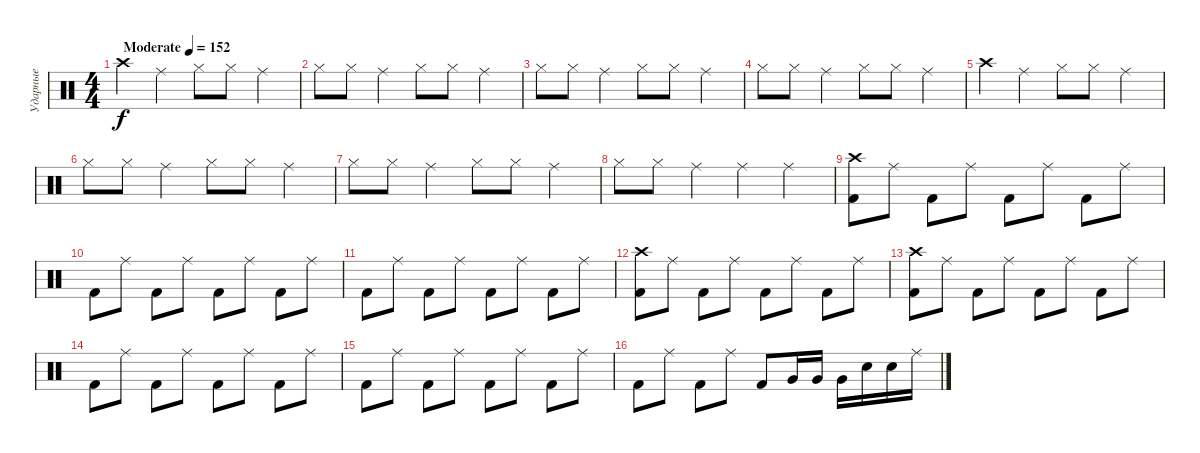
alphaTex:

\track ("Ударные" "Ударные") {instrument percussion}
\staff {score}
\articulation defaults
\ts (4 4)
\tempo (152 "Moderate")
\clef neutral
\ks c "Crash high (hit)".4{dy f} "Ride (middle)".4 "Hi-Hat (closed)".8 "Hi-Hat (closed)".8 "Ride (middle)".4
|
"Hi-Hat (closed)".8 "Hi-Hat (closed)".8 "Ride (middle)".4 "Hi-Hat (closed)".8 "Hi-Hat (closed)".8 "Ride (middle)".4 |
"Hi-Hat (closed)".8 "Hi-Hat (closed)".8 "Ride (middle)".4 "Hi-Hat (closed)".8 "Hi-Hat (closed)".8 "Ride (middle)".4 |
"Hi-Hat (closed)".8 "Hi-Hat (closed)".8 "Ride (middle)".4 "Hi-Hat (closed)".8 "Hi-Hat (closed)".8 "Ride (middle)".4 |
"Crash high (hit)".4 "Ride (middle)".4 "Hi-Hat (closed)".8 "Hi-Hat (closed)".8 "Ride (middle)".4 |
"Hi-Hat (closed)".8 "Hi-Hat (closed)".8 "Ride (middle)".4 "Hi-Hat (closed)".8 "Hi-Hat (closed)".8 "Ride (middle)".4 |
"Hi-Hat (closed)".8 "Hi-Hat (closed)".8 "Ride (middle)".4 "Hi-Hat (closed)".8 "Hi-Hat (closed)".8 "Ride (middle)".4 |
"Hi-Hat (closed)".8 "Hi-Hat (closed)".8 "Ride (middle)".4 "Ride (middle)".4 "Ride (middle)".4 |
("Crash high (hit)" "Kick (hit) 2").8 "Ride (middle)".8 "Kick (hit) 2".8 "Ride (middle)".8 "Kick (hit) 2".8 "Ride (middle)".8 "Kick (hit) 2".8 "Ride (middle)".8 |
"Kick (hit) 2".8 "Ride (middle)".8 "Kick (hit) 2".8 "Ride (middle)".8 "Kick (hit) 2".8 "Ride (middle)".8 "Kick (hit) 2".8 "Ride (middle)".8 |
"Kick (hit) 2".8 "Ride (middle)".8 "Kick (hit) 2".8 "Ride (middle)".8 "Kick (hit) 2".8 "Ride (middle)".8 "Kick (hit) 2".8 "Ride (middle)".8 |
("Crash high (hit)" "Kick (hit) 2").8 "Ride (middle)".8 "Kick (hit) 2".8 "Ride (middle)".8 "Kick (hit) 2".8 "Ride (middle)".8 "Kick (hit) 2".8 "Ride (middle)".8 |
("Crash high (hit)" "Kick (hit) 2").8 "Ride (middle)".8 "Kick (hit) 2".8 "Ride (middle)".8 "Kick (hit) 2".8 "Ride (middle)".8 "Kick (hit) 2".8 "Ride (middle)".8 |
"Kick (hit) 2".8 "Ride (middle)".8 "Kick (hit) 2".8 "Ride (middle)".8 "Kick (hit) 2".8 "Ride (middle)".8 "Kick (hit) 2".8 "Ride (middle)".8 |
"Kick (hit) 2".8 "Ride (middle)".8 "Kick (hit) 2".8 "Ride (middle)".8 "Kick (hit) 2".8 "Ride (middle)".8 "Kick (hit) 2".8 "Ride (middle)".8 |
"Kick (hit) 2".8 "Ride (middle)".8 "Kick (hit) 2".8 "Ride (middle)".8 "Kick (hit) 2".8 "Very Low Tom (hit)".16 "Very Low Tom (hit)".16 "Very Low Tom (hit)".16 "Electric Snare (hit)".16 "Electric Snare (hit)".16 "Ride (middle)".16
